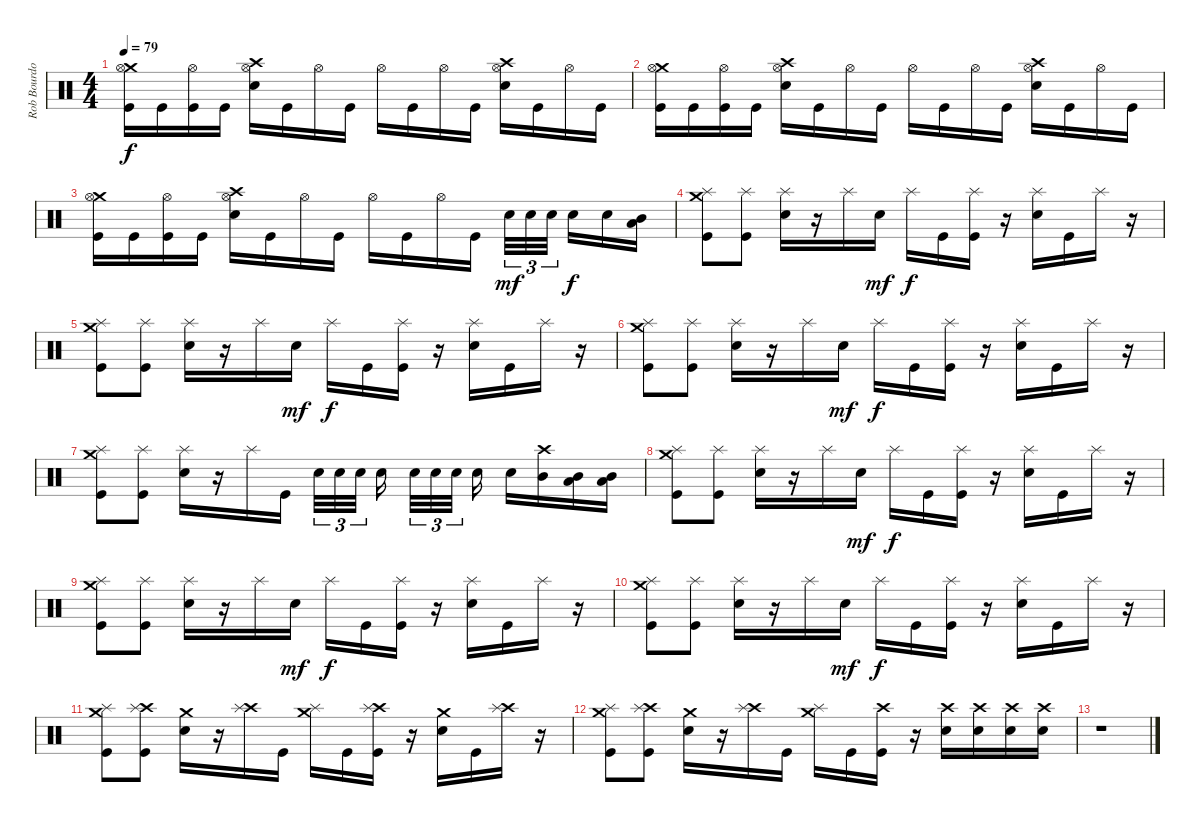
\track ("Rob Bourdon - Drums" "Rob Bourdo") {instrument percussion}
\staff {score}
\articulation defaults
\ts (4 4)
\tempo 79
\clef neutral
\ks c
("Crash medium (hit)" "Hi-Hat (open)" "Kick (hit)").16{dy f} "Kick (hit)".16 ("Hi-Hat (open)" "Kick (hit)").16 "Kick (hit)".16 ("Crash high (hit)" "Hi-Hat (open)" "Electric Snare (hit)").16 "Kick (hit)".16 "Hi-Hat (open)".16 "Kick (hit)".16 "Hi-Hat (open)".16 "Kick (hit)".16 "Hi-Hat (open)".16 "Kick (hit)".16 ("Crash high (hit)" "Hi-Hat (open)" "Electric Snare (hit)").16 "Kick (hit)".16 "Hi-Hat (open)".16 "Kick (hit)".16 |
("Crash medium (hit)" "Hi-Hat (open)" "Kick (hit)").16 "Kick (hit)".16 ("Hi-Hat (open)" "Kick (hit)").16 "Kick (hit)".16 ("Crash high (hit)" "Hi-Hat (open)" "Electric Snare (hit)").16 "Kick (hit)".16 "Hi-Hat (open)".16 "Kick (hit)".16 "Hi-Hat (open)".16 "Kick (hit)".16 "Hi-Hat (open)".16 "Kick (hit)".16 ("Crash high (hit)" "Hi-Hat (open)" "Electric Snare (hit)").16 "Kick (hit)".16 "Hi-Hat (open)".16 "Kick (hit)".16 |
("Crash medium (hit)" "Hi-Hat (open)" "Kick (hit)").16 "Kick (hit)".16 ("Hi-Hat (open)" "Kick (hit)").16 "Kick (hit)".16 ("Crash high (hit)" "Hi-Hat (open)" "Electric Snare (hit)").16 "Kick (hit)".16 "Hi-Hat (open)".16 "Kick (hit)".16 "Hi-Hat (open)".16 "Kick (hit)".16 "Hi-Hat (open)".16 "Kick (hit)".16 "Electric Snare (hit)".32{tu (3 2) dy mf} "Electric Snare (hit)".32{tu (3 2)} "Electric Snare (hit)".32{tu (3 2) beam splitsecondary} "Electric Snare (hit)".16{dy f} "Electric Snare (hit)".16 ("Mid Tom (hit)" "Low Tom (hit)").16 |
("Crash medium (hit)" "Splash (hit)" "Kick (hit)").8 ("Splash (hit)" "Kick (hit)").8 ("Splash (hit)" "Electric Snare (hit)").16 r.16 "Splash (hit)".16 "Electric Snare (hit)".16{dy mf} "Splash (hit)".16{dy f} "Kick (hit)".16 ("Splash (hit)" "Kick (hit)").16 r.16 ("Splash (hit)" "Electric Snare (hit)").16 "Kick (hit)".16 "Splash (hit)".16 r.16 |
("Crash medium (hit)" "Splash (hit)" "Kick (hit)").8 ("Splash (hit)" "Kick (hit)").8 ("Splash (hit)" "Electric Snare (hit)").16 r.16 "Splash (hit)".16 "Electric Snare (hit)".16{dy mf} "Splash (hit)".16{dy f} "Kick (hit)".16 ("Splash (hit)" "Kick (hit)").16 r.16 ("Splash (hit)" "Electric Snare (hit)").16 "Kick (hit)".16 "Splash (hit)".16 r.16 |
("Crash medium (hit)" "Splash (hit)" "Kick (hit)").8 ("Splash (hit)" "Kick (hit)").8 ("Splash (hit)" "Electric Snare (hit)").16 r.16 "Splash (hit)".16 "Electric Snare (hit)".16{dy mf} "Splash (hit)".16{dy f} "Kick (hit)".16 ("Splash (hit)" "Kick (hit)").16 r.16 ("Splash (hit)" "Electric Snare (hit)").16 "Kick (hit)".16 "Splash (hit)".16 r.16 |
("Crash medium (hit)" "Splash (hit)" "Kick (hit)").8 ("Splash (hit)" "Kick (hit)").8 ("Splash (hit)" "Electric Snare (hit)").16 r.16 "Splash (hit)".16 "Kick (hit)".16 "Electric Snare (hit)".32{tu (3 2)} "Electric Snare (hit)".32{tu (3 2)} "Electric Snare (hit)".32{tu (3 2) beam splitsecondary} "Electric Snare (hit)".16{beam splitsecondary} "Electric Snare (hit)".32{tu (3 2)} "Electric Snare (hit)".32{tu (3 2)} "Electric Snare (hit)".32{tu (3 2) beam splitsecondary} "Electric Snare (hit)".16 "Electric Snare (hit)".16 ("Crash high (hit)" "Mid Tom (hit)").16 ("Mid Tom (hit)" "Low Tom (hit)").16 ("Mid Tom (hit)" "Low Tom (hit)").16 |
("Crash medium (hit)" "Splash (hit)" "Kick (hit)").8 ("Splash (hit)" "Kick (hit)").8 ("Splash (hit)" "Electric Snare (hit)").16 r.16 "Splash (hit)".16 "Electric Snare (hit)".16{dy mf} "Splash (hit)".16{dy f} "Kick (hit)".16 ("Splash (hit)" "Kick (hit)").16 r.16 ("Splash (hit)" "Electric Snare (hit)").16 "Kick (hit)".16 "Splash (hit)".16 r.16 |
("Crash medium (hit)" "Splash (hit)" "Kick (hit)").8 ("Splash (hit)" "Kick (hit)").8 ("Splash (hit)" "Electric Snare (hit)").16 r.16 "Splash (hit)".16 "Electric Snare (hit)".16{dy mf} "Splash (hit)".16{dy f} "Kick (hit)".16 ("Splash (hit)" "Kick (hit)").16 r.16 ("Splash (hit)" "Electric Snare (hit)").16 "Kick (hit)".16 "Splash (hit)".16 r.16 |
("Crash medium (hit)" "Splash (hit)" "Kick (hit)").8 ("Splash (hit)" "Kick (hit)").8 ("Splash (hit)" "Electric Snare (hit)").16 r.16 "Splash (hit)".16 "Electric Snare (hit)".16{dy mf} "Splash (hit)".16{dy f} "Kick (hit)".16 ("Splash (hit)" "Kick (hit)").16 r.16 ("Splash (hit)" "Electric Snare (hit)").16 "Kick (hit)".16 "Splash (hit)".16 r.16 |
("Crash medium (hit)" "Splash (hit)" "Kick (hit)").8 ("Crash high (hit)" "Splash (hit)" "Kick (hit)").8 ("Crash medium (hit)" "Electric Snare (hit)").16 r.16 ("Crash high (hit)" "Splash (hit)").16 "Kick (hit)".16 ("Crash medium (hit)" "Splash (hit)").16 "Kick (hit)".16 ("Crash high (hit)" "Splash (hit)" "Kick (hit)").16 r.16 ("Crash medium (hit)" "Electric Snare (hit)").16 "Kick (hit)".16 ("Crash high (hit)" "Splash (hit)").16 r.16 |
("Crash medium (hit)" "Splash (hit)" "Kick (hit)").8 ("Crash high (hit)" "Splash (hit)" "Kick (hit)").8 ("Crash medium (hit)" "Electric Snare (hit)").16 r.16 ("Crash high (hit)" "Splash (hit)").16 "Kick (hit)".16 ("Crash medium (hit)" "Splash (hit)").16 "Kick (hit)".16 ("Crash high (hit)" "Kick (hit)").16 r.16 ("Crash high (hit)" "Electric Snare (hit)").16 ("Crash high (hit)" "Electric Snare (hit)").16 ("Crash high (hit)" "Electric Snare (hit)").16 ("Crash high (hit)" "Electric Snare (hit)").16 |
r.1
